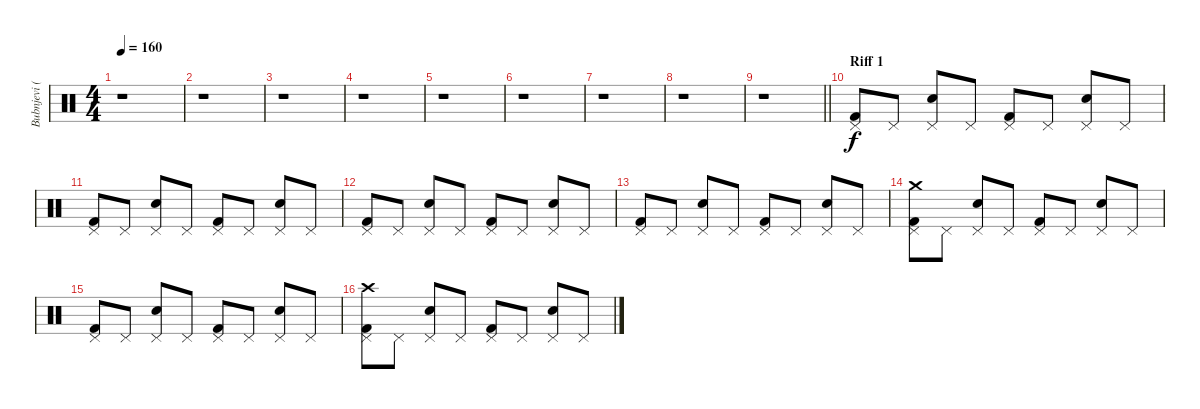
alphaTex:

\track ("Bubnjevi (Nasko Budimic)" "Bubnjevi (") {instrument percussion}
\staff {score}
\articulation defaults
\ts (4 4)
\tempo 160
\clef neutral
\ks c
r.1{dy f} |
r.1 |
r.1 |
r.1 |
r.1 |
r.1 |
r.1 |
r.1 |
\barLineRight lightlight
r.1 |
\section ("" "Riff 1")
("Pedal Hi-Hat (hit)" "Kick (hit) 2").8 "Pedal Hi-Hat (hit)".8 ("Pedal Hi-Hat (hit)" "Snare (hit) 2").8 "Pedal Hi-Hat (hit)".8 ("Pedal Hi-Hat (hit)" "Kick (hit) 2").8 "Pedal Hi-Hat (hit)".8 ("Pedal Hi-Hat (hit)" "Snare (hit) 2").8 "Pedal Hi-Hat (hit)".8 |
("Pedal Hi-Hat (hit)" "Kick (hit) 2").8 "Pedal Hi-Hat (hit)".8 ("Pedal Hi-Hat (hit)" "Snare (hit) 2").8 "Pedal Hi-Hat (hit)".8 ("Pedal Hi-Hat (hit)" "Kick (hit) 2").8 "Pedal Hi-Hat (hit)".8 ("Pedal Hi-Hat (hit)" "Snare (hit) 2").8 "Pedal Hi-Hat (hit)".8 |
("Pedal Hi-Hat (hit)" "Kick (hit) 2").8 "Pedal Hi-Hat (hit)".8 ("Pedal Hi-Hat (hit)" "Snare (hit) 2").8 "Pedal Hi-Hat (hit)".8 ("Pedal Hi-Hat (hit)" "Kick (hit) 2").8 "Pedal Hi-Hat (hit)".8 ("Pedal Hi-Hat (hit)" "Snare (hit) 2").8 "Pedal Hi-Hat (hit)".8 |
("Pedal Hi-Hat (hit)" "Kick (hit) 2").8 "Pedal Hi-Hat (hit)".8 ("Pedal Hi-Hat (hit)" "Snare (hit) 2").8 "Pedal Hi-Hat (hit)".8 ("Pedal Hi-Hat (hit)" "Kick (hit) 2").8 "Pedal Hi-Hat (hit)".8 ("Pedal Hi-Hat (hit)" "Snare (hit) 2").8 "Pedal Hi-Hat (hit)".8 |
("Crash medium (hit)" "Pedal Hi-Hat (hit)" "Kick (hit) 2").8 "Pedal Hi-Hat (hit)".8 ("Pedal Hi-Hat (hit)" "Snare (hit) 2").8 "Pedal Hi-Hat (hit)".8 ("Pedal Hi-Hat (hit)" "Kick (hit) 2").8 "Pedal Hi-Hat (hit)".8 ("Pedal Hi-Hat (hit)" "Snare (hit) 2").8 "Pedal Hi-Hat (hit)".8 |
("Pedal Hi-Hat (hit)" "Kick (hit) 2").8 "Pedal Hi-Hat (hit)".8 ("Pedal Hi-Hat (hit)" "Snare (hit) 2").8 "Pedal Hi-Hat (hit)".8 ("Pedal Hi-Hat (hit)" "Kick (hit) 2").8 "Pedal Hi-Hat (hit)".8 ("Pedal Hi-Hat (hit)" "Snare (hit) 2").8 "Pedal Hi-Hat (hit)".8 |
("Crash high (hit)" "Pedal Hi-Hat (hit)" "Kick (hit) 2").8 "Pedal Hi-Hat (hit)".8 ("Pedal Hi-Hat (hit)" "Snare (hit) 2").8 "Pedal Hi-Hat (hit)".8 ("Pedal Hi-Hat (hit)" "Kick (hit) 2").8 "Pedal Hi-Hat (hit)".8 ("Pedal Hi-Hat (hit)" "Snare (hit) 2").8 "Pedal Hi-Hat (hit)".8
